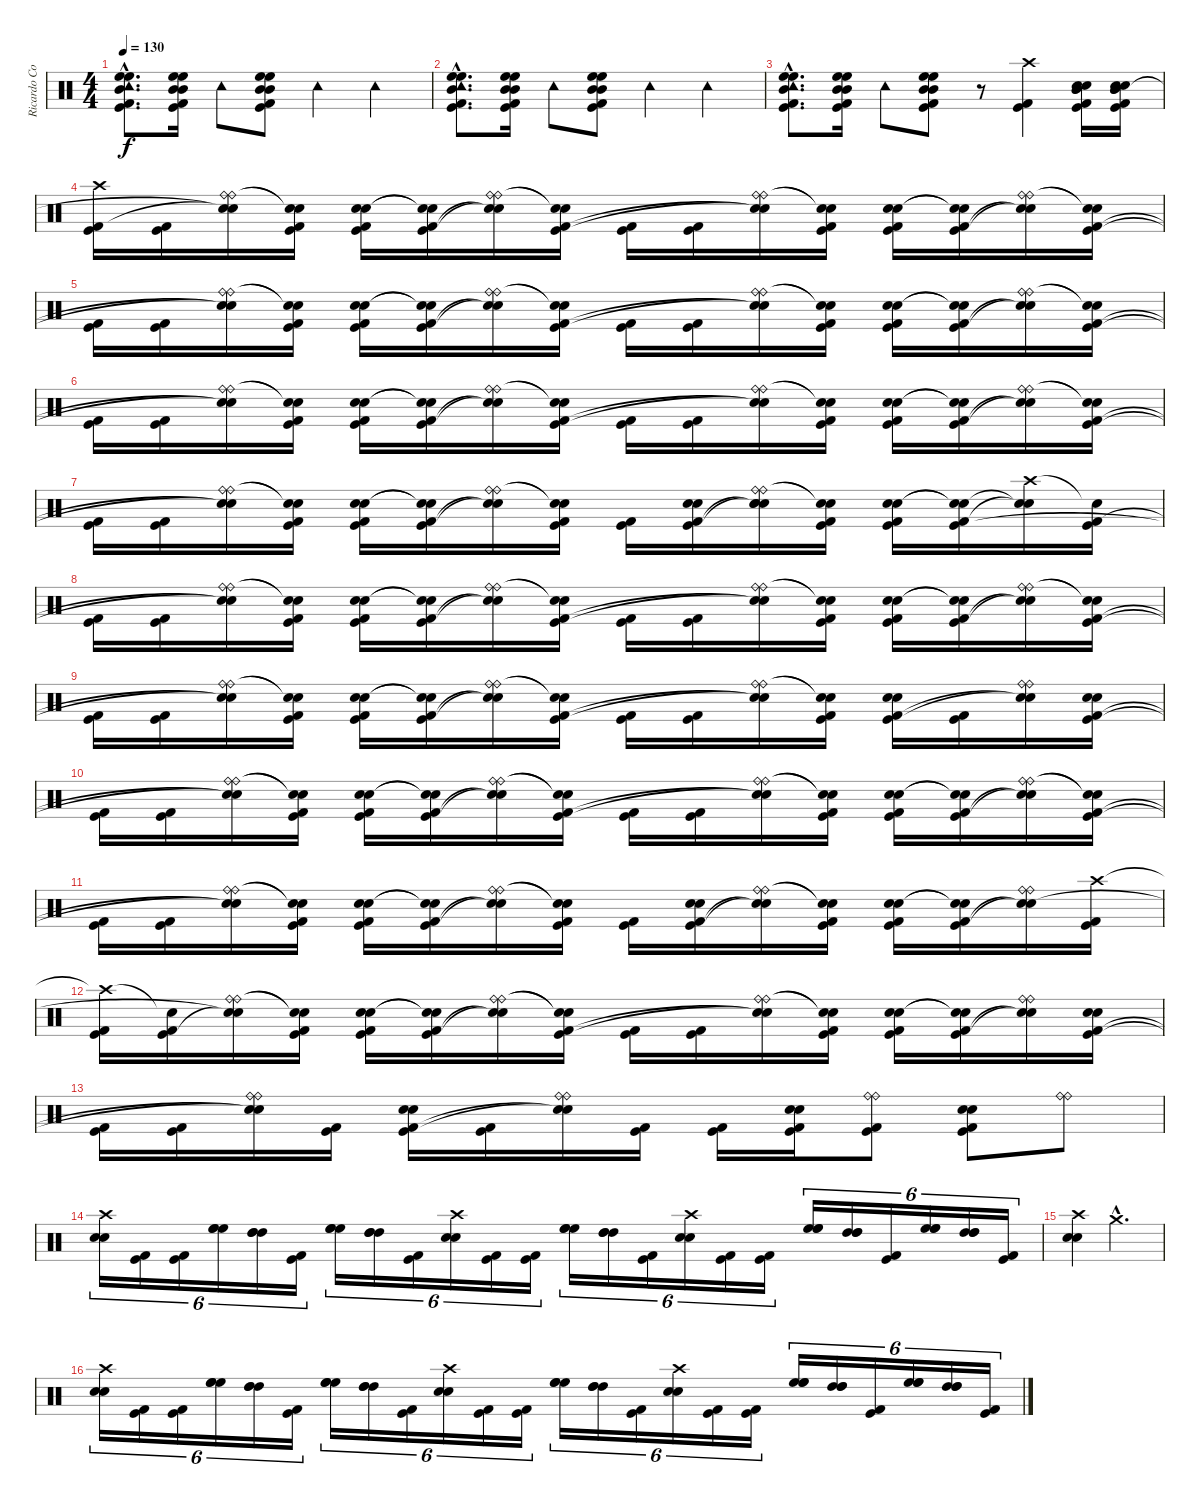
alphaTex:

\track ("Ricardo Confessori" "Ricardo Co") {instrument percussion}
\staff {score}
\articulation defaults
\ts (4 4)
\tempo 130
\clef neutral
\ks c
("High Floor Tom (hit)"{hac} "High Floor Tom (hit)"{hac} "Mid Tom (hit)"{hac} "Tambourine (hit)"{hac} "Kick (hit)"{hac} "Kick (hit) 2"{hac}).8{d dy f} ("High Floor Tom (hit)" "High Floor Tom (hit)" "Mid Tom (hit)" "Mid Tom (hit)" "Kick (hit)" "Kick (hit) 2").16 "Tambourine (hit)".8 ("High Floor Tom (hit)" "High Floor Tom (hit)" "Mid Tom (hit)" "Mid Tom (hit)" "Kick (hit)" "Kick (hit) 2").8 "Tambourine (hit)".4 "Tambourine (hit)".4 |
("High Floor Tom (hit)"{hac} "High Floor Tom (hit)"{hac} "Mid Tom (hit)"{hac} "Tambourine (hit)"{hac} "Kick (hit)"{hac} "Kick (hit) 2"{hac}).8{d} ("High Floor Tom (hit)" "High Floor Tom (hit)" "Mid Tom (hit)" "Mid Tom (hit)" "Kick (hit)" "Kick (hit) 2").16 "Tambourine (hit)".8 ("High Floor Tom (hit)" "High Floor Tom (hit)" "Mid Tom (hit)" "Mid Tom (hit)" "Kick (hit)" "Kick (hit) 2").8 "Tambourine (hit)".4 "Tambourine (hit)".4 |
("High Floor Tom (hit)"{hac} "High Floor Tom (hit)"{hac} "Mid Tom (hit)"{hac} "Tambourine (hit)"{hac} "Kick (hit)"{hac} "Kick (hit) 2"{hac}).8{d} ("High Floor Tom (hit)" "High Floor Tom (hit)" "Mid Tom (hit)" "Mid Tom (hit)" "Kick (hit)" "Kick (hit) 2").16 "Tambourine (hit)".8 ("High Floor Tom (hit)" "High Floor Tom (hit)" "Mid Tom (hit)" "Mid Tom (hit)" "Kick (hit)" "Kick (hit) 2").8 r.8 ("Crash high (hit)" "Kick (hit)" "Kick (hit) 2").4 ("Mid Tom (hit)" "Electric Snare (hit)" "Snare (hit) 2" "Mid Tom (hit)" "Kick (hit) 2" "Kick (hit)").16 ("Mid Tom (hit)" "Electric Snare (hit)" "Snare (hit) 2" "Mid Tom (hit)" "Kick (hit)" "Kick (hit) 2").16 |
("Crash high (hit)" "Kick (hit)" "Kick (hit) 2").16 ("Kick (hit) 2" "Kick (hit)").16 ("Ride (bell)" "Ride (bell)" "Snare (hit)"{t} "Snare (hit)"{t}).16 ("Snare (hit)"{t} "Snare (hit)"{t} "Kick (hit) 2" "Kick (hit)").16 ("Electric Snare (hit)" "Snare (hit) 2" "Kick (hit)" "Kick (hit) 2").16 ("Snare (hit)"{t} "Snare (hit)"{t} "Kick (hit) 2" "Kick (hit)").16 ("Ride (bell)" "Ride (bell)" "Snare (hit)"{t} "Snare (hit)"{t}).16 ("Snare (hit)"{t} "Snare (hit)"{t} "Kick (hit)" "Kick (hit) 2").16 ("Kick (hit) 2" "Kick (hit)").16 ("Kick (hit)" "Kick (hit) 2").16 ("Ride (bell)" "Ride (bell)" "Snare (hit)"{t} "Snare (hit)"{t}).16 ("Snare (hit)"{t} "Snare (hit)"{t} "Kick (hit)" "Kick (hit) 2").16 ("Electric Snare (hit)" "Snare (hit) 2" "Kick (hit)" "Kick (hit) 2").16 ("Snare (hit)"{t} "Snare (hit)"{t} "Kick (hit) 2" "Kick (hit)").16 ("Ride (bell)" "Ride (bell)" "Snare (hit)"{t} "Snare (hit)"{t}).16 ("Snare (hit)"{t} "Snare (hit)"{t} "Kick (hit)" "Kick (hit) 2").16 |
("Kick (hit)" "Kick (hit) 2").16 ("Kick (hit) 2" "Kick (hit)").16 ("Ride (bell)" "Ride (bell)" "Snare (hit)"{t} "Snare (hit)"{t}).16 ("Snare (hit)"{t} "Snare (hit)"{t} "Kick (hit) 2" "Kick (hit)").16 ("Electric Snare (hit)" "Snare (hit) 2" "Kick (hit)" "Kick (hit) 2").16 ("Snare (hit)"{t} "Snare (hit)"{t} "Kick (hit) 2" "Kick (hit)").16 ("Ride (bell)" "Ride (bell)" "Snare (hit)"{t} "Snare (hit)"{t}).16 ("Snare (hit)"{t} "Snare (hit)"{t} "Kick (hit)" "Kick (hit) 2").16 ("Kick (hit) 2" "Kick (hit)").16 ("Kick (hit)" "Kick (hit) 2").16 ("Ride (bell)" "Ride (bell)" "Snare (hit)"{t} "Snare (hit)"{t}).16 ("Snare (hit)"{t} "Snare (hit)"{t} "Kick (hit)" "Kick (hit) 2").16 ("Electric Snare (hit)" "Snare (hit) 2" "Kick (hit)" "Kick (hit) 2").16 ("Snare (hit)"{t} "Snare (hit)"{t} "Kick (hit) 2" "Kick (hit)").16 ("Ride (bell)" "Ride (bell)" "Snare (hit)"{t} "Snare (hit)"{t}).16 ("Snare (hit)"{t} "Snare (hit)"{t} "Kick (hit)" "Kick (hit) 2").16 |
("Kick (hit)" "Kick (hit) 2").16 ("Kick (hit) 2" "Kick (hit)").16 ("Ride (bell)" "Ride (bell)" "Snare (hit)"{t} "Snare (hit)"{t}).16 ("Snare (hit)"{t} "Snare (hit)"{t} "Kick (hit) 2" "Kick (hit)").16 ("Electric Snare (hit)" "Snare (hit) 2" "Kick (hit)" "Kick (hit) 2").16 ("Snare (hit)"{t} "Snare (hit)"{t} "Kick (hit) 2" "Kick (hit)").16 ("Ride (bell)" "Ride (bell)" "Snare (hit)"{t} "Snare (hit)"{t}).16 ("Snare (hit)"{t} "Snare (hit)"{t} "Kick (hit)" "Kick (hit) 2").16 ("Kick (hit) 2" "Kick (hit)").16 ("Kick (hit)" "Kick (hit) 2").16 ("Ride (bell)" "Ride (bell)" "Snare (hit)"{t} "Snare (hit)"{t}).16 ("Snare (hit)"{t} "Snare (hit)"{t} "Kick (hit)" "Kick (hit) 2").16 ("Electric Snare (hit)" "Snare (hit) 2" "Kick (hit)" "Kick (hit) 2").16 ("Snare (hit)"{t} "Snare (hit)"{t} "Kick (hit) 2" "Kick (hit)").16 ("Ride (bell)" "Ride (bell)" "Snare (hit)"{t} "Snare (hit)"{t}).16 ("Snare (hit)"{t} "Snare (hit)"{t} "Kick (hit)" "Kick (hit) 2").16 |
("Kick (hit)" "Kick (hit) 2").16 ("Kick (hit) 2" "Kick (hit)").16 ("Ride (bell)" "Ride (bell)" "Snare (hit)"{t} "Snare (hit)"{t}).16 ("Snare (hit)"{t} "Snare (hit)"{t} "Kick (hit) 2" "Kick (hit)").16 ("Electric Snare (hit)" "Snare (hit) 2" "Kick (hit)" "Kick (hit) 2").16 ("Snare (hit)"{t} "Snare (hit)"{t} "Kick (hit) 2" "Kick (hit)").16 ("Ride (bell)" "Ride (bell)" "Snare (hit)"{t} "Snare (hit)"{t}).16 ("Snare (hit)"{t} "Snare (hit)"{t} "Kick (hit)" "Kick (hit) 2").16 ("Kick (hit) 2" "Kick (hit)").16 ("Electric Snare (hit)" "Snare (hit) 2" "Kick (hit)" "Kick (hit) 2").16 ("Ride (bell)" "Ride (bell)" "Snare (hit)"{t} "Snare (hit)"{t} "Snare (hit)").16 ("Snare (hit)"{t} "Snare (hit)"{t} "Kick (hit)" "Kick (hit) 2").16 ("Electric Snare (hit)" "Snare (hit) 2" "Kick (hit)" "Kick (hit) 2").16 ("Snare (hit)"{t} "Snare (hit)"{t} "Kick (hit) 2" "Kick (hit)").16 ("Crash high (hit)" "Snare (hit)"{t} "Snare (hit)"{t}).16 ("Snare (hit)"{t} "Kick (hit)" "Kick (hit) 2").16 |
("Kick (hit)" "Kick (hit) 2").16 ("Kick (hit) 2" "Kick (hit)").16 ("Ride (bell)" "Ride (bell)" "Snare (hit)"{t} "Snare (hit)"{t}).16 ("Snare (hit)"{t} "Snare (hit)"{t} "Kick (hit) 2" "Kick (hit)").16 ("Electric Snare (hit)" "Snare (hit) 2" "Kick (hit)" "Kick (hit) 2").16 ("Snare (hit)"{t} "Snare (hit)"{t} "Kick (hit) 2" "Kick (hit)").16 ("Ride (bell)" "Ride (bell)" "Snare (hit)"{t} "Snare (hit)"{t}).16 ("Snare (hit)"{t} "Snare (hit)"{t} "Kick (hit)" "Kick (hit) 2").16 ("Kick (hit) 2" "Kick (hit)").16 ("Kick (hit)" "Kick (hit) 2").16 ("Ride (bell)" "Ride (bell)" "Snare (hit)"{t} "Snare (hit)"{t}).16 ("Snare (hit)"{t} "Snare (hit)"{t} "Kick (hit)" "Kick (hit) 2").16 ("Electric Snare (hit)" "Snare (hit) 2" "Kick (hit)" "Kick (hit) 2").16 ("Snare (hit)"{t} "Snare (hit)"{t} "Kick (hit) 2" "Kick (hit)").16 ("Ride (bell)" "Ride (bell)" "Snare (hit)"{t} "Snare (hit)"{t}).16 ("Snare (hit)"{t} "Snare (hit)"{t} "Kick (hit)" "Kick (hit) 2").16 |
("Kick (hit)" "Kick (hit) 2").16 ("Kick (hit) 2" "Kick (hit)").16 ("Ride (bell)" "Ride (bell)" "Snare (hit)"{t} "Snare (hit)"{t}).16 ("Snare (hit)"{t} "Snare (hit)"{t} "Kick (hit) 2" "Kick (hit)").16 ("Electric Snare (hit)" "Snare (hit) 2" "Kick (hit)" "Kick (hit) 2").16 ("Snare (hit)"{t} "Snare (hit)"{t} "Kick (hit) 2" "Kick (hit)").16 ("Ride (bell)" "Ride (bell)" "Snare (hit)"{t} "Snare (hit)"{t}).16 ("Snare (hit)"{t} "Snare (hit)"{t} "Kick (hit)" "Kick (hit) 2").16 ("Kick (hit) 2" "Kick (hit)").16 ("Kick (hit)" "Kick (hit) 2").16 ("Ride (bell)" "Ride (bell)" "Snare (hit)"{t} "Snare (hit)"{t}).16 ("Snare (hit)"{t} "Electric Snare (hit)"{t} "Kick (hit)" "Kick (hit) 2").16 ("Snare (hit) 2" "Electric Snare (hit)" "Kick (hit)" "Kick (hit) 2").16 ("Kick (hit) 2" "Kick (hit)").16 ("Ride (bell)" "Ride (bell)" "Snare (hit)"{t} "Snare (hit)"{t}).16 ("Electric Snare (hit)" "Snare (hit) 2" "Kick (hit)" "Kick (hit) 2").16 |
("Kick (hit)" "Kick (hit) 2").16 ("Kick (hit) 2" "Kick (hit)").16 ("Ride (bell)" "Ride (bell)" "Snare (hit)"{t} "Snare (hit)"{t}).16 ("Snare (hit)"{t} "Snare (hit)"{t} "Kick (hit) 2" "Kick (hit)").16 ("Electric Snare (hit)" "Snare (hit) 2" "Kick (hit)" "Kick (hit) 2").16 ("Snare (hit)"{t} "Snare (hit)"{t} "Kick (hit) 2" "Kick (hit)").16 ("Ride (bell)" "Ride (bell)" "Snare (hit)"{t} "Snare (hit)"{t}).16 ("Snare (hit)"{t} "Snare (hit)"{t} "Kick (hit)" "Kick (hit) 2").16 ("Kick (hit) 2" "Kick (hit)").16 ("Kick (hit)" "Kick (hit) 2").16 ("Ride (bell)" "Ride (bell)" "Snare (hit)"{t} "Snare (hit)"{t}).16 ("Snare (hit)"{t} "Snare (hit)"{t} "Kick (hit)" "Kick (hit) 2").16 ("Electric Snare (hit)" "Snare (hit) 2" "Kick (hit)" "Kick (hit) 2").16 ("Snare (hit)"{t} "Snare (hit)"{t} "Kick (hit) 2" "Kick (hit)").16 ("Ride (bell)" "Ride (bell)" "Snare (hit)"{t} "Snare (hit)"{t}).16 ("Snare (hit)"{t} "Snare (hit)"{t} "Kick (hit)" "Kick (hit) 2").16 |
("Kick (hit)" "Kick (hit) 2").16 ("Kick (hit) 2" "Kick (hit)").16 ("Ride (bell)" "Ride (bell)" "Snare (hit)"{t} "Snare (hit)"{t}).16 ("Snare (hit)"{t} "Snare (hit)"{t} "Kick (hit) 2" "Kick (hit)").16 ("Electric Snare (hit)" "Snare (hit) 2" "Kick (hit)" "Kick (hit) 2").16 ("Snare (hit)"{t} "Snare (hit)"{t} "Kick (hit) 2" "Kick (hit)").16 ("Ride (bell)" "Ride (bell)" "Snare (hit)"{t} "Snare (hit)"{t}).16 ("Snare (hit)"{t} "Snare (hit)"{t} "Kick (hit)" "Kick (hit) 2").16 ("Kick (hit) 2" "Kick (hit)").16 ("Electric Snare (hit)" "Snare (hit) 2" "Kick (hit)" "Kick (hit) 2").16 ("Ride (bell)" "Ride (bell)" "Snare (hit)"{t} "Snare (hit)"{t}).16 ("Snare (hit)"{t} "Snare (hit)"{t} "Kick (hit)" "Kick (hit) 2").16 ("Electric Snare (hit)" "Snare (hit) 2" "Kick (hit)" "Kick (hit) 2").16 ("Snare (hit)"{t} "Snare (hit)"{t} "Kick (hit) 2" "Kick (hit)").16 ("Ride (bell)" "Ride (bell)" "Snare (hit)"{t} "Snare (hit)"{t}).16 ("Crash high (hit)" "Kick (hit)" "Kick (hit) 2").16 |
("Crash high (hit)"{t} "Kick (hit)" "Kick (hit) 2").16 ("Snare (hit)"{t} "Kick (hit) 2" "Kick (hit)").16 ("Ride (bell)" "Ride (bell)" "Snare (hit)"{t} "Snare (hit)"{t}).16 ("Snare (hit)"{t} "Snare (hit)"{t} "Kick (hit) 2" "Kick (hit)").16 ("Electric Snare (hit)" "Snare (hit) 2" "Kick (hit)" "Kick (hit) 2").16 ("Snare (hit)"{t} "Snare (hit)"{t} "Kick (hit) 2" "Kick (hit)").16 ("Ride (bell)" "Ride (bell)" "Snare (hit)"{t} "Snare (hit)"{t}).16 ("Snare (hit)"{t} "Snare (hit)"{t} "Kick (hit)" "Kick (hit) 2").16 ("Kick (hit) 2" "Kick (hit)").16 ("Kick (hit)" "Kick (hit) 2").16 ("Ride (bell)" "Ride (bell)" "Snare (hit)"{t} "Snare (hit)"{t}).16 ("Snare (hit)"{t} "Snare (hit)"{t} "Kick (hit)" "Kick (hit) 2").16 ("Electric Snare (hit)" "Snare (hit) 2" "Kick (hit)" "Kick (hit) 2").16 ("Snare (hit)"{t} "Snare (hit)"{t} "Kick (hit) 2" "Kick (hit)").16 ("Ride (bell)" "Ride (bell)" "Snare (hit)"{t} "Snare (hit)"{t}).16 ("Electric Snare (hit)" "Snare (hit) 2" "Kick (hit)" "Kick (hit) 2").16 |
("Kick (hit) 2" "Kick (hit)").16 ("Kick (hit)" "Kick (hit) 2").16 ("Ride (bell)" "Ride (bell)" "Snare (hit)"{t} "Snare (hit)"{t}).16 ("Kick (hit)" "Kick (hit) 2").16 ("Electric Snare (hit)" "Snare (hit) 2" "Kick (hit) 2" "Kick (hit)").16 ("Kick (hit)" "Kick (hit) 2").16 ("Ride (bell)" "Ride (bell)" "Snare (hit)"{t} "Snare (hit)"{t}).16 ("Kick (hit)" "Kick (hit) 2").16 ("Kick (hit) 2" "Kick (hit)").16 ("Electric Snare (hit)" "Snare (hit) 2" "Kick (hit)" "Kick (hit) 2").16 ("Ride (bell)" "Ride (bell)" "Kick (hit)" "Kick (hit) 2").8 ("Electric Snare (hit)" "Snare (hit) 2" "Kick (hit) 2" "Kick (hit)").8 ("Ride (bell)" "Ride (bell)").8 |
("Crash high (hit)" "Electric Snare (hit)" "Snare (hit) 2").16{tu (6 4)} ("Kick (hit)" "Kick (hit) 2").16{tu (6 4)} ("Kick (hit)" "Kick (hit) 2").16{tu (6 4)} ("High Floor Tom (hit)" "High Floor Tom (hit)" "High Floor Tom (hit)").16{tu (6 4)} ("High Tom (hit)" "High Tom (hit)" "High Tom (hit)").16{tu (6 4)} ("Kick (hit)" "Kick (hit) 2").16{tu (6 4)} ("High Floor Tom (hit)" "High Floor Tom (hit)" "High Floor Tom (hit)").16{tu (6 4)} ("High Tom (hit)" "High Tom (hit)" "High Tom (hit)").16{tu (6 4)} ("Kick (hit) 2" "Kick (hit)").16{tu (6 4)} ("Crash high (hit)" "Electric Snare (hit)" "Snare (hit) 2").16{tu (6 4)} ("Kick (hit)" "Kick (hit) 2").16{tu (6 4)} ("Kick (hit)" "Kick (hit) 2").16{tu (6 4)} ("High Floor Tom (hit)" "High Floor Tom (hit)" "High Floor Tom (hit)").16{tu (6 4)} ("High Tom (hit)" "High Tom (hit)" "High Tom (hit)").16{tu (6 4)} ("Kick (hit) 2" "Kick (hit)").16{tu (6 4)} ("Crash high (hit)" "Electric Snare (hit)" "Snare (hit) 2").16{tu (6 4)} ("Kick (hit)" "Kick (hit) 2").16{tu (6 4)} ("Kick (hit)" "Kick (hit) 2").16{tu (6 4)} ("High Floor Tom (hit)" "High Floor Tom (hit)" "High Floor Tom (hit)").16{tu (6 4)} ("High Tom (hit)" "High Tom (hit)" "High Tom (hit)").16{tu (6 4)} ("Kick (hit) 2" "Kick (hit)").16{tu (6 4)} ("High Floor Tom (hit)" "High Floor Tom (hit)" "High Floor Tom (hit)").16{tu (6 4)} ("High Tom (hit)" "High Tom (hit)" "High Tom (hit)").16{tu (6 4)} ("Kick (hit)" "Kick (hit) 2").16{tu (6 4)} |
("Crash high (hit)" "Electric Snare (hit)" "Snare (hit) 2").4 "Crash medium (hit)"{hac}.2{d} |
("Crash high (hit)" "Electric Snare (hit)" "Snare (hit) 2").16{tu (6 4)} ("Kick (hit)" "Kick (hit) 2").16{tu (6 4)} ("Kick (hit)" "Kick (hit) 2").16{tu (6 4)} ("High Floor Tom (hit)" "High Floor Tom (hit)" "High Floor Tom (hit)").16{tu (6 4)} ("High Tom (hit)" "High Tom (hit)" "High Tom (hit)").16{tu (6 4)} ("Kick (hit)" "Kick (hit) 2").16{tu (6 4)} ("High Floor Tom (hit)" "High Floor Tom (hit)" "High Floor Tom (hit)").16{tu (6 4)} ("High Tom (hit)" "High Tom (hit)" "High Tom (hit)").16{tu (6 4)} ("Kick (hit) 2" "Kick (hit)").16{tu (6 4)} ("Crash high (hit)" "Electric Snare (hit)" "Snare (hit) 2").16{tu (6 4)} ("Kick (hit)" "Kick (hit) 2").16{tu (6 4)} ("Kick (hit)" "Kick (hit) 2").16{tu (6 4)} ("High Floor Tom (hit)" "High Floor Tom (hit)" "High Floor Tom (hit)").16{tu (6 4)} ("High Tom (hit)" "High Tom (hit)" "High Tom (hit)").16{tu (6 4)} ("Kick (hit) 2" "Kick (hit)").16{tu (6 4)} ("Crash high (hit)" "Electric Snare (hit)" "Snare (hit) 2").16{tu (6 4)} ("Kick (hit)" "Kick (hit) 2").16{tu (6 4)} ("Kick (hit)" "Kick (hit) 2").16{tu (6 4)} ("High Floor Tom (hit)" "High Floor Tom (hit)" "High Floor Tom (hit)").16{tu (6 4)} ("High Tom (hit)" "High Tom (hit)" "High Tom (hit)").16{tu (6 4)} ("Kick (hit) 2" "Kick (hit)").16{tu (6 4)} ("High Floor Tom (hit)" "High Floor Tom (hit)" "High Floor Tom (hit)").16{tu (6 4)} ("High Tom (hit)" "High Tom (hit)" "High Tom (hit)").16{tu (6 4)} ("Kick (hit)" "Kick (hit) 2").16{tu (6 4)}
